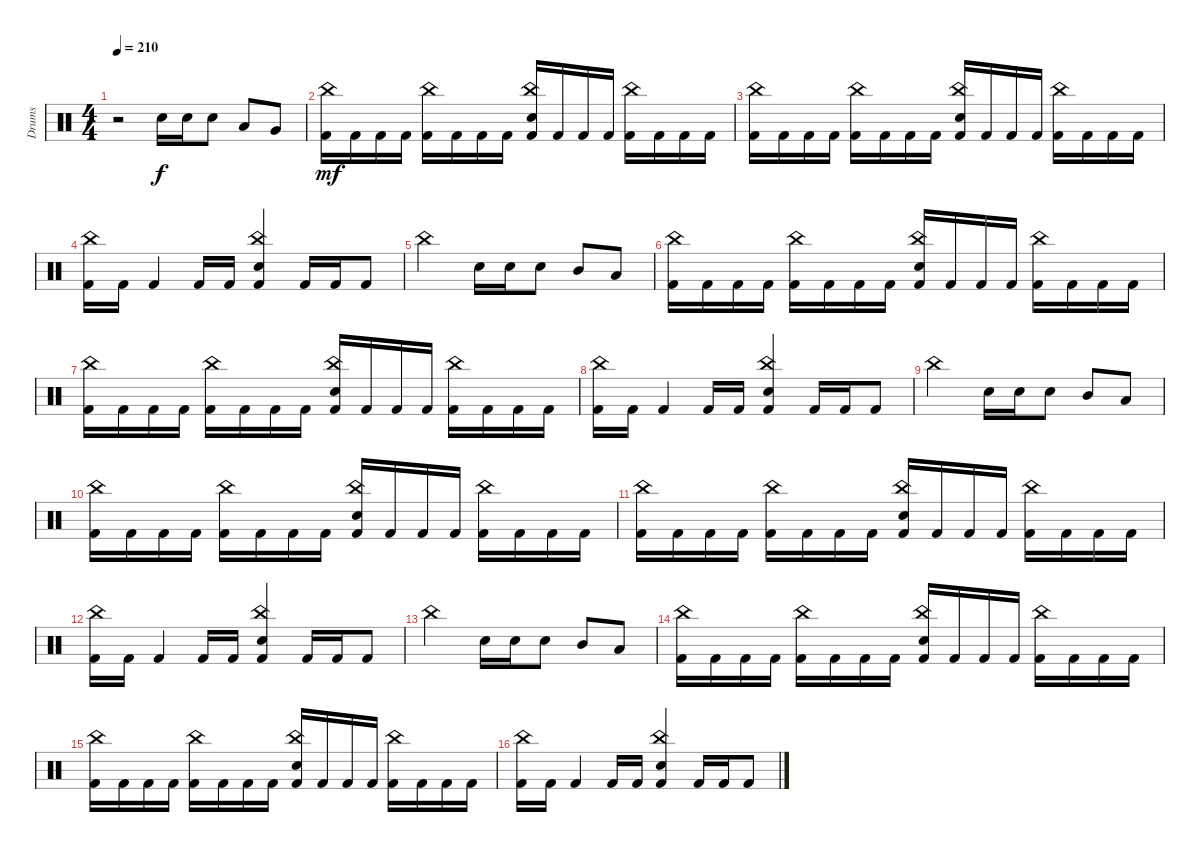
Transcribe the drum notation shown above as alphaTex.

\track ("Drums" "Drums") {instrument percussion}
\staff {score}
\articulation defaults
\ts (4 4)
\tempo 210
\clef neutral
\ks c
r.2{dy f} "Electric Snare (hit)".16 "Electric Snare (hit)".16 "Electric Snare (hit)".8 "Low Tom (hit)".8 "Very Low Tom (hit)".8 |
\section ("" "")
("China (hit)" "Kick (hit) 2").16{dy mf} "Kick (hit) 2".16 "Kick (hit) 2".16 "Kick (hit) 2".16 ("China (hit)" "Kick (hit) 2").16 "Kick (hit) 2".16 "Kick (hit) 2".16 "Kick (hit) 2".16 ("China (hit)" "Electric Snare (hit)" "Kick (hit) 2").16 "Kick (hit) 2".16 "Kick (hit) 2".16 "Kick (hit) 2".16 ("China (hit)" "Kick (hit) 2").16 "Kick (hit) 2".16 "Kick (hit) 2".16 "Kick (hit) 2".16 |
("China (hit)" "Kick (hit) 2").16 "Kick (hit) 2".16 "Kick (hit) 2".16 "Kick (hit) 2".16 ("China (hit)" "Kick (hit) 2").16 "Kick (hit) 2".16 "Kick (hit) 2".16 "Kick (hit) 2".16 ("China (hit)" "Electric Snare (hit)" "Kick (hit) 2").16 "Kick (hit) 2".16 "Kick (hit) 2".16 "Kick (hit) 2".16 ("China (hit)" "Kick (hit) 2").16 "Kick (hit) 2".16 "Kick (hit) 2".16 "Kick (hit) 2".16 |
("China (hit)" "Kick (hit) 2").16 "Kick (hit) 2".16 "Kick (hit) 2".4 "Kick (hit) 2".16 "Kick (hit) 2".16 ("China (hit)" "Electric Snare (hit)" "Kick (hit) 2").4 "Kick (hit) 2".16 "Kick (hit) 2".16 "Kick (hit) 2".8 |
"China (hit)".2 "Electric Snare (hit)".16 "Electric Snare (hit)".16 "Electric Snare (hit)".8 "Mid Tom (hit)".8 "Low Tom (hit)".8 |
("China (hit)" "Kick (hit) 2").16 "Kick (hit) 2".16 "Kick (hit) 2".16 "Kick (hit) 2".16 ("China (hit)" "Kick (hit) 2").16 "Kick (hit) 2".16 "Kick (hit) 2".16 "Kick (hit) 2".16 ("China (hit)" "Electric Snare (hit)" "Kick (hit) 2").16 "Kick (hit) 2".16 "Kick (hit) 2".16 "Kick (hit) 2".16 ("China (hit)" "Kick (hit) 2").16 "Kick (hit) 2".16 "Kick (hit) 2".16 "Kick (hit) 2".16 |
("China (hit)" "Kick (hit) 2").16 "Kick (hit) 2".16 "Kick (hit) 2".16 "Kick (hit) 2".16 ("China (hit)" "Kick (hit) 2").16 "Kick (hit) 2".16 "Kick (hit) 2".16 "Kick (hit) 2".16 ("China (hit)" "Electric Snare (hit)" "Kick (hit) 2").16 "Kick (hit) 2".16 "Kick (hit) 2".16 "Kick (hit) 2".16 ("China (hit)" "Kick (hit) 2").16 "Kick (hit) 2".16 "Kick (hit) 2".16 "Kick (hit) 2".16 |
("China (hit)" "Kick (hit) 2").16 "Kick (hit) 2".16 "Kick (hit) 2".4 "Kick (hit) 2".16 "Kick (hit) 2".16 ("China (hit)" "Electric Snare (hit)" "Kick (hit) 2").4 "Kick (hit) 2".16 "Kick (hit) 2".16 "Kick (hit) 2".8 |
"China (hit)".2 "Electric Snare (hit)".16 "Electric Snare (hit)".16 "Electric Snare (hit)".8 "Mid Tom (hit)".8 "Low Tom (hit)".8 |
("China (hit)" "Kick (hit) 2").16 "Kick (hit) 2".16 "Kick (hit) 2".16 "Kick (hit) 2".16 ("China (hit)" "Kick (hit) 2").16 "Kick (hit) 2".16 "Kick (hit) 2".16 "Kick (hit) 2".16 ("China (hit)" "Electric Snare (hit)" "Kick (hit) 2").16 "Kick (hit) 2".16 "Kick (hit) 2".16 "Kick (hit) 2".16 ("China (hit)" "Kick (hit) 2").16 "Kick (hit) 2".16 "Kick (hit) 2".16 "Kick (hit) 2".16 |
("China (hit)" "Kick (hit) 2").16 "Kick (hit) 2".16 "Kick (hit) 2".16 "Kick (hit) 2".16 ("China (hit)" "Kick (hit) 2").16 "Kick (hit) 2".16 "Kick (hit) 2".16 "Kick (hit) 2".16 ("China (hit)" "Electric Snare (hit)" "Kick (hit) 2").16 "Kick (hit) 2".16 "Kick (hit) 2".16 "Kick (hit) 2".16 ("China (hit)" "Kick (hit) 2").16 "Kick (hit) 2".16 "Kick (hit) 2".16 "Kick (hit) 2".16 |
("China (hit)" "Kick (hit) 2").16 "Kick (hit) 2".16 "Kick (hit) 2".4 "Kick (hit) 2".16 "Kick (hit) 2".16 ("China (hit)" "Electric Snare (hit)" "Kick (hit) 2").4 "Kick (hit) 2".16 "Kick (hit) 2".16 "Kick (hit) 2".8 |
"China (hit)".2 "Electric Snare (hit)".16 "Electric Snare (hit)".16 "Electric Snare (hit)".8 "Mid Tom (hit)".8 "Low Tom (hit)".8 |
("China (hit)" "Kick (hit) 2").16 "Kick (hit) 2".16 "Kick (hit) 2".16 "Kick (hit) 2".16 ("China (hit)" "Kick (hit) 2").16 "Kick (hit) 2".16 "Kick (hit) 2".16 "Kick (hit) 2".16 ("China (hit)" "Electric Snare (hit)" "Kick (hit) 2").16 "Kick (hit) 2".16 "Kick (hit) 2".16 "Kick (hit) 2".16 ("China (hit)" "Kick (hit) 2").16 "Kick (hit) 2".16 "Kick (hit) 2".16 "Kick (hit) 2".16 |
("China (hit)" "Kick (hit) 2").16 "Kick (hit) 2".16 "Kick (hit) 2".16 "Kick (hit) 2".16 ("China (hit)" "Kick (hit) 2").16 "Kick (hit) 2".16 "Kick (hit) 2".16 "Kick (hit) 2".16 ("China (hit)" "Electric Snare (hit)" "Kick (hit) 2").16 "Kick (hit) 2".16 "Kick (hit) 2".16 "Kick (hit) 2".16 ("China (hit)" "Kick (hit) 2").16 "Kick (hit) 2".16 "Kick (hit) 2".16 "Kick (hit) 2".16 |
("China (hit)" "Kick (hit) 2").16 "Kick (hit) 2".16 "Kick (hit) 2".4 "Kick (hit) 2".16 "Kick (hit) 2".16 ("China (hit)" "Electric Snare (hit)" "Kick (hit) 2").4 "Kick (hit) 2".16 "Kick (hit) 2".16 "Kick (hit) 2".8
